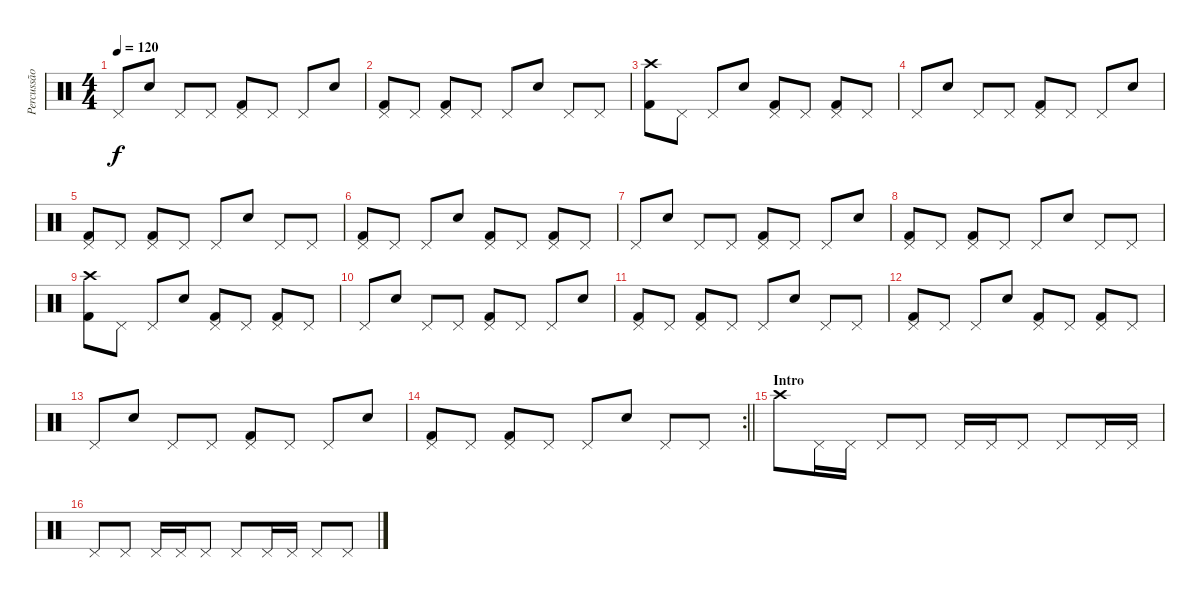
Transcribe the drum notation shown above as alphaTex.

\track ("Percussão" "Percussão") {instrument percussion}
\staff {score}
\articulation defaults
\ts (4 4)
\tempo 120
\clef neutral
\ks c "Pedal Hi-Hat (hit)".8{dy f} "Snare (hit) 2".8 "Pedal Hi-Hat (hit)".8 "Pedal Hi-Hat (hit)".8
("Pedal Hi-Hat (hit)" "Kick (hit) 2").8 "Pedal Hi-Hat (hit)".8 "Pedal Hi-Hat (hit)".8 "Snare (hit) 2".8 |
("Pedal Hi-Hat (hit)" "Kick (hit) 2").8 "Pedal Hi-Hat (hit)".8 ("Pedal Hi-Hat (hit)" "Kick (hit) 2").8 "Pedal Hi-Hat (hit)".8 "Pedal Hi-Hat (hit)".8 "Snare (hit) 2".8 "Pedal Hi-Hat (hit)".8 "Pedal Hi-Hat (hit)".8 |
("Crash high (hit)" "Kick (hit) 2").8 "Pedal Hi-Hat (hit)".8 "Pedal Hi-Hat (hit)".8 "Snare (hit) 2".8 ("Pedal Hi-Hat (hit)" "Kick (hit) 2").8 "Pedal Hi-Hat (hit)".8 ("Pedal Hi-Hat (hit)" "Kick (hit) 2").8 "Pedal Hi-Hat (hit)".8 |
"Pedal Hi-Hat (hit)".8 "Snare (hit) 2".8 "Pedal Hi-Hat (hit)".8 "Pedal Hi-Hat (hit)".8 ("Pedal Hi-Hat (hit)" "Kick (hit) 2").8 "Pedal Hi-Hat (hit)".8 "Pedal Hi-Hat (hit)".8 "Snare (hit) 2".8 |
("Pedal Hi-Hat (hit)" "Kick (hit) 2").8 "Pedal Hi-Hat (hit)".8 ("Pedal Hi-Hat (hit)" "Kick (hit) 2").8 "Pedal Hi-Hat (hit)".8 "Pedal Hi-Hat (hit)".8 "Snare (hit) 2".8 "Pedal Hi-Hat (hit)".8 "Pedal Hi-Hat (hit)".8 |
("Pedal Hi-Hat (hit)" "Kick (hit) 2").8 "Pedal Hi-Hat (hit)".8 "Pedal Hi-Hat (hit)".8 "Snare (hit) 2".8 ("Pedal Hi-Hat (hit)" "Kick (hit) 2").8 "Pedal Hi-Hat (hit)".8 ("Pedal Hi-Hat (hit)" "Kick (hit) 2").8 "Pedal Hi-Hat (hit)".8 |
"Pedal Hi-Hat (hit)".8 "Snare (hit) 2".8 "Pedal Hi-Hat (hit)".8 "Pedal Hi-Hat (hit)".8 ("Pedal Hi-Hat (hit)" "Kick (hit) 2").8 "Pedal Hi-Hat (hit)".8 "Pedal Hi-Hat (hit)".8 "Snare (hit) 2".8 |
("Pedal Hi-Hat (hit)" "Kick (hit) 2").8 "Pedal Hi-Hat (hit)".8 ("Pedal Hi-Hat (hit)" "Kick (hit) 2").8 "Pedal Hi-Hat (hit)".8 "Pedal Hi-Hat (hit)".8 "Snare (hit) 2".8 "Pedal Hi-Hat (hit)".8 "Pedal Hi-Hat (hit)".8 |
("Crash high (hit)" "Kick (hit) 2").8 "Pedal Hi-Hat (hit)".8 "Pedal Hi-Hat (hit)".8 "Snare (hit) 2".8 ("Pedal Hi-Hat (hit)" "Kick (hit) 2").8 "Pedal Hi-Hat (hit)".8 ("Pedal Hi-Hat (hit)" "Kick (hit) 2").8 "Pedal Hi-Hat (hit)".8 |
"Pedal Hi-Hat (hit)".8 "Snare (hit) 2".8 "Pedal Hi-Hat (hit)".8 "Pedal Hi-Hat (hit)".8 ("Pedal Hi-Hat (hit)" "Kick (hit) 2").8 "Pedal Hi-Hat (hit)".8 "Pedal Hi-Hat (hit)".8 "Snare (hit) 2".8 |
("Pedal Hi-Hat (hit)" "Kick (hit) 2").8 "Pedal Hi-Hat (hit)".8 ("Pedal Hi-Hat (hit)" "Kick (hit) 2").8 "Pedal Hi-Hat (hit)".8 "Pedal Hi-Hat (hit)".8 "Snare (hit) 2".8 "Pedal Hi-Hat (hit)".8 "Pedal Hi-Hat (hit)".8 |
("Pedal Hi-Hat (hit)" "Kick (hit) 2").8 "Pedal Hi-Hat (hit)".8 "Pedal Hi-Hat (hit)".8 "Snare (hit) 2".8 ("Pedal Hi-Hat (hit)" "Kick (hit) 2").8 "Pedal Hi-Hat (hit)".8 ("Pedal Hi-Hat (hit)" "Kick (hit) 2").8 "Pedal Hi-Hat (hit)".8 |
"Pedal Hi-Hat (hit)".8 "Snare (hit) 2".8 "Pedal Hi-Hat (hit)".8 "Pedal Hi-Hat (hit)".8 ("Pedal Hi-Hat (hit)" "Kick (hit) 2").8 "Pedal Hi-Hat (hit)".8 "Pedal Hi-Hat (hit)".8 "Snare (hit) 2".8 |
\rc 2
\barLineRight lightlight
("Pedal Hi-Hat (hit)" "Kick (hit) 2").8 "Pedal Hi-Hat (hit)".8 ("Pedal Hi-Hat (hit)" "Kick (hit) 2").8 "Pedal Hi-Hat (hit)".8 "Pedal Hi-Hat (hit)".8 "Snare (hit) 2".8 "Pedal Hi-Hat (hit)".8 "Pedal Hi-Hat (hit)".8 |
\section ("" "Intro")
"Crash high (hit)".8 "Pedal Hi-Hat (hit)".16 "Pedal Hi-Hat (hit)".16 "Pedal Hi-Hat (hit)".8 "Pedal Hi-Hat (hit)".8 "Pedal Hi-Hat (hit)".16 "Pedal Hi-Hat (hit)".16 "Pedal Hi-Hat (hit)".8 "Pedal Hi-Hat (hit)".8 "Pedal Hi-Hat (hit)".16 "Pedal Hi-Hat (hit)".16 |
"Pedal Hi-Hat (hit)".8 "Pedal Hi-Hat (hit)".8 "Pedal Hi-Hat (hit)".16 "Pedal Hi-Hat (hit)".16 "Pedal Hi-Hat (hit)".8 "Pedal Hi-Hat (hit)".8 "Pedal Hi-Hat (hit)".16 "Pedal Hi-Hat (hit)".16 "Pedal Hi-Hat (hit)".8 "Pedal Hi-Hat (hit)".8
